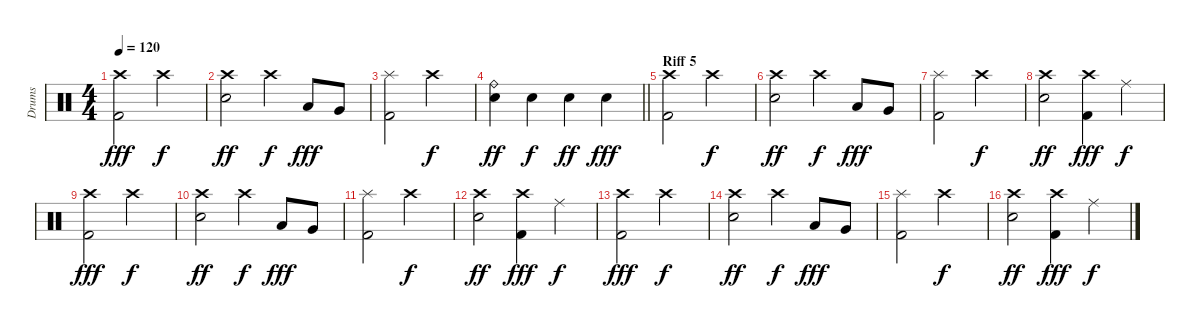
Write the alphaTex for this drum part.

\track ("Drums" "Drums") {instrument percussion}
\staff {score}
\articulation defaults
\ts (4 4)
\tempo 120
\clef neutral
\ks c
("Kick (hit) 2" "Crash high (hit)").2{dy fff} "Crash high (hit)".2{dy f} |
("Snare (hit) 2" "Crash high (hit)").2{dy ff} "Crash high (hit)".4{dy f} "Low Tom (hit)".8{dy fff} "Very Low Tom (hit)".8 |
("Kick (hit) 2" "Splash (hit)").2 "Crash high (hit)".2{dy f} |
\barLineRight lightlight
("Snare (hit) 2" "Ride (bell)").4{dy ff} "Snare (hit) 2".4{dy f} "Snare (hit) 2".4{dy ff} "Snare (hit) 2".4{dy fff} |
\section ("" "Riff 5")
("Kick (hit) 2" "Crash high (hit)").2 "Crash high (hit)".2{dy f} |
("Snare (hit) 2" "Crash high (hit)").2{dy ff} "Crash high (hit)".4{dy f} "Low Tom (hit)".8{dy fff} "Very Low Tom (hit)".8 |
("Kick (hit) 2" "Splash (hit)").2 "Crash high (hit)".2{dy f} |
("Snare (hit) 2" "Crash high (hit)").2{dy ff} ("Kick (hit) 2" "Crash high (hit)").4{dy fff} "Ride (middle)".4{dy f} |
("Kick (hit) 2" "Crash high (hit)").2{dy fff} "Crash high (hit)".2{dy f} |
("Snare (hit) 2" "Crash high (hit)").2{dy ff} "Crash high (hit)".4{dy f} "Low Tom (hit)".8{dy fff} "Very Low Tom (hit)".8 |
("Kick (hit) 2" "Splash (hit)").2 "Crash high (hit)".2{dy f} |
("Snare (hit) 2" "Crash high (hit)").2{dy ff} ("Kick (hit) 2" "Crash high (hit)").4{dy fff} "Ride (middle)".4{dy f} |
("Kick (hit) 2" "Crash high (hit)").2{dy fff} "Crash high (hit)".2{dy f} |
("Snare (hit) 2" "Crash high (hit)").2{dy ff} "Crash high (hit)".4{dy f} "Low Tom (hit)".8{dy fff} "Very Low Tom (hit)".8 |
("Kick (hit) 2" "Splash (hit)").2 "Crash high (hit)".2{dy f} |
("Snare (hit) 2" "Crash high (hit)").2{dy ff} ("Kick (hit) 2" "Crash high (hit)").4{dy fff} "Ride (middle)".4{dy f}
